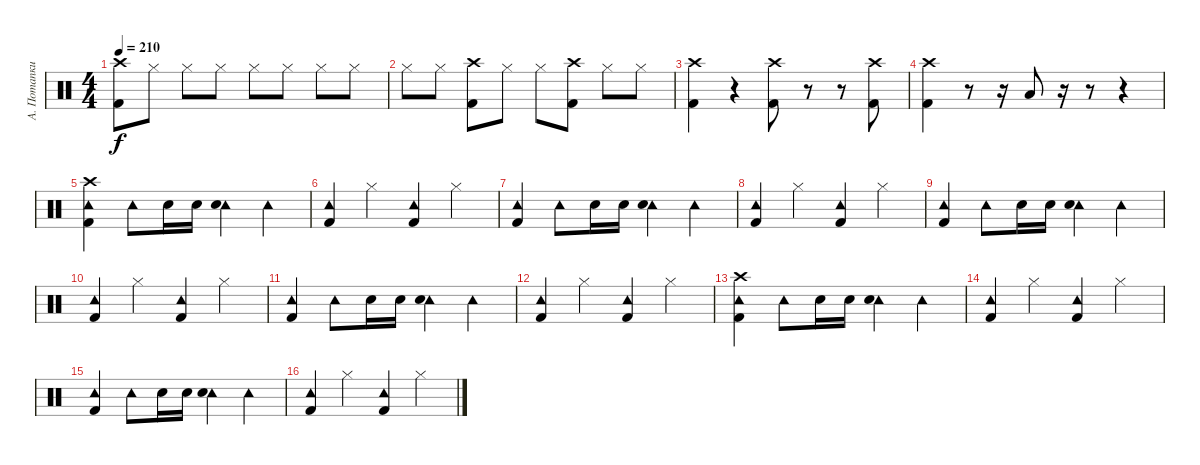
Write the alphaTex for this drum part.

\track ("А. Потапкин" "А. Потапки") {instrument percussion}
\staff {score}
\articulation defaults
\ts (4 4)
\tempo 210
\clef neutral
\ks c
("Crash high (hit)" "Kick (hit) 2").8{dy f} "Hi-Hat (closed)".8 "Hi-Hat (closed)".8 "Hi-Hat (closed)".8 "Hi-Hat (closed)".8 "Hi-Hat (closed)".8 "Hi-Hat (closed)".8 "Hi-Hat (closed)".8 |
"Hi-Hat (closed)".8 "Hi-Hat (closed)".8 ("Crash high (hit)" "Kick (hit) 2").8 "Hi-Hat (closed)".8 "Hi-Hat (closed)".8 ("Crash high (hit)" "Kick (hit) 2").8 "Hi-Hat (closed)".8 "Hi-Hat (closed)".8 |
("Crash high (hit)" "Kick (hit) 2").4 r.4 ("Crash high (hit)" "Kick (hit) 2").8 r.8 r.8 ("Crash high (hit)" "Kick (hit) 2").8 |
("Crash high (hit)" "Kick (hit) 2").4 r.8 r.16 "Low Floor Tom (hit)".8 r.16 r.8 r.4 |
("Crash high (hit)" "Tambourine (hit)" "Kick (hit) 2").4 "Tambourine (hit)".8 "Electric Snare (hit)".16 "Electric Snare (hit)".16 ("Tambourine (hit)" "Electric Snare (hit)").4 "Tambourine (hit)".4 |
("Tambourine (hit)" "Kick (hit) 2").4 "Hi-Hat (closed)".4 ("Tambourine (hit)" "Kick (hit) 2").4 "Hi-Hat (closed)".4 |
("Tambourine (hit)" "Kick (hit) 2").4 "Tambourine (hit)".8 "Electric Snare (hit)".16 "Electric Snare (hit)".16 ("Tambourine (hit)" "Electric Snare (hit)").4 "Tambourine (hit)".4 |
("Tambourine (hit)" "Kick (hit) 2").4 "Hi-Hat (closed)".4 ("Tambourine (hit)" "Kick (hit) 2").4 "Hi-Hat (closed)".4 |
("Tambourine (hit)" "Kick (hit) 2").4 "Tambourine (hit)".8 "Electric Snare (hit)".16 "Electric Snare (hit)".16 ("Tambourine (hit)" "Electric Snare (hit)").4 "Tambourine (hit)".4 |
("Tambourine (hit)" "Kick (hit) 2").4 "Hi-Hat (closed)".4 ("Tambourine (hit)" "Kick (hit) 2").4 "Hi-Hat (closed)".4 |
("Tambourine (hit)" "Kick (hit) 2").4 "Tambourine (hit)".8 "Electric Snare (hit)".16 "Electric Snare (hit)".16 ("Tambourine (hit)" "Electric Snare (hit)").4 "Tambourine (hit)".4 |
("Tambourine (hit)" "Kick (hit) 2").4 "Hi-Hat (closed)".4 ("Tambourine (hit)" "Kick (hit) 2").4 "Hi-Hat (closed)".4 |
("Crash high (hit)" "Tambourine (hit)" "Kick (hit) 2").4 "Tambourine (hit)".8 "Electric Snare (hit)".16 "Electric Snare (hit)".16 ("Tambourine (hit)" "Electric Snare (hit)").4 "Tambourine (hit)".4 |
("Tambourine (hit)" "Kick (hit) 2").4 "Hi-Hat (closed)".4 ("Tambourine (hit)" "Kick (hit) 2").4 "Hi-Hat (closed)".4 |
("Tambourine (hit)" "Kick (hit) 2").4 "Tambourine (hit)".8 "Electric Snare (hit)".16 "Electric Snare (hit)".16 ("Tambourine (hit)" "Electric Snare (hit)").4 "Tambourine (hit)".4 |
("Tambourine (hit)" "Kick (hit) 2").4 "Hi-Hat (closed)".4 ("Tambourine (hit)" "Kick (hit) 2").4 "Hi-Hat (closed)".4
